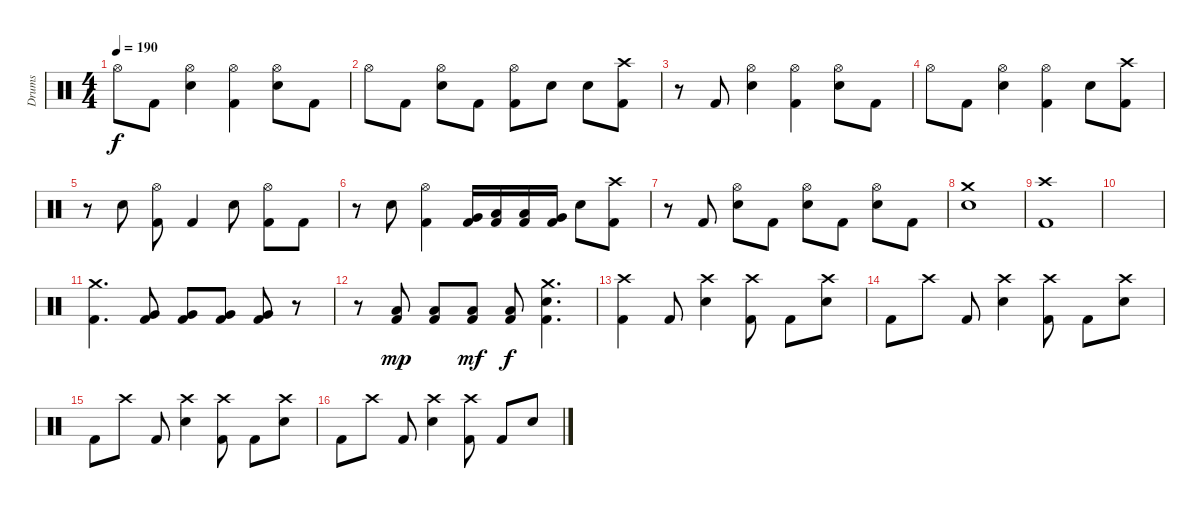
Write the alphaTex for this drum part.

\track ("Drums" "Drums") {instrument percussion}
\staff {score}
\articulation defaults
\ts (4 4)
\tempo 190
\clef neutral
\ks c "Hi-Hat (open)".8{dy f} "Kick (hit) 2".8
("Hi-Hat (open)" "Electric Snare (hit)").4 ("Hi-Hat (open)" "Kick (hit) 2").4 ("Hi-Hat (open)" "Electric Snare (hit)").8 "Kick (hit) 2".8 |
"Hi-Hat (open)".8 "Kick (hit) 2".8 ("Hi-Hat (open)" "Electric Snare (hit)").8 "Kick (hit) 2".8 ("Hi-Hat (open)" "Kick (hit) 2").8 "Electric Snare (hit)".8 "Electric Snare (hit)".8 ("Crash high (hit)" "Kick (hit) 2").8 |
r.8 "Kick (hit) 2".8 ("Hi-Hat (open)" "Electric Snare (hit)").4 ("Hi-Hat (open)" "Kick (hit) 2").4 ("Hi-Hat (open)" "Electric Snare (hit)").8 "Kick (hit) 2".8 |
"Hi-Hat (open)".8 "Kick (hit) 2".8 ("Hi-Hat (open)" "Electric Snare (hit)").4 ("Hi-Hat (open)" "Kick (hit) 2").4 "Electric Snare (hit)".8 ("Crash high (hit)" "Kick (hit) 2").8 |
r.8 "Electric Snare (hit)".8 ("Hi-Hat (open)" "Kick (hit) 2").8 "Kick (hit) 2".4 "Electric Snare (hit)".8 ("Hi-Hat (open)" "Kick (hit) 2").8 "Kick (hit) 2".8 |
r.8 "Electric Snare (hit)".8 ("Hi-Hat (open)" "Kick (hit) 2").4 ("Very Low Tom (hit)" "Kick (hit) 2").16 ("Low Floor Tom (hit)" "Kick (hit) 2").16 ("Low Floor Tom (hit)" "Kick (hit) 2").16 ("Very Low Tom (hit)" "Kick (hit) 2").16 "Electric Snare (hit)".8 ("Crash high (hit)" "Kick (hit) 2").8 |
r.8 "Kick (hit) 2".8 ("Hi-Hat (open)" "Electric Snare (hit)").8 "Kick (hit) 2".8 ("Hi-Hat (open)" "Electric Snare (hit)").8 "Kick (hit) 2".8 ("Hi-Hat (open)" "Electric Snare (hit)").8 "Kick (hit) 2".8 |
("Crash medium (hit)" "Electric Snare (hit)").1 |
("Crash high (hit)" "Kick (hit) 2").1 |
|
("Crash medium (hit)" "Kick (hit) 2").4{d} ("Very Low Tom (hit)" "Kick (hit) 2").8 ("Very Low Tom (hit)" "Kick (hit) 2").8 ("Very Low Tom (hit)" "Kick (hit) 2").8 ("Very Low Tom (hit)" "Kick (hit) 2").8 r.8 |
r.8 ("Low Floor Tom (hit)" "Kick (hit) 2").8{dy mp} ("Low Floor Tom (hit)" "Kick (hit) 2").8 ("Low Floor Tom (hit)" "Kick (hit) 2").8{dy mf} ("Low Floor Tom (hit)" "Kick (hit) 2").8{dy f} ("Crash medium (hit)" "Electric Snare (hit)" "Kick (hit) 2").4{d} |
("Crash high (hit)" "Kick (hit) 2").4 "Kick (hit) 2".8 ("Crash high (hit)" "Electric Snare (hit)").4 ("Crash high (hit)" "Kick (hit) 2").8 "Kick (hit) 2".8 ("Crash high (hit)" "Electric Snare (hit)").8 |
"Kick (hit) 2".8 "Crash high (hit)".8 "Kick (hit) 2".8 ("Crash high (hit)" "Electric Snare (hit)").4 ("Crash high (hit)" "Kick (hit) 2").8 "Kick (hit) 2".8 ("Crash high (hit)" "Electric Snare (hit)").8 |
"Kick (hit) 2".8 "Crash high (hit)".8 "Kick (hit) 2".8 ("Crash high (hit)" "Electric Snare (hit)").4 ("Crash high (hit)" "Kick (hit) 2").8 "Kick (hit) 2".8 ("Crash high (hit)" "Electric Snare (hit)").8 |
"Kick (hit) 2".8 "Crash high (hit)".8 "Kick (hit) 2".8 ("Crash high (hit)" "Electric Snare (hit)").4 ("Crash high (hit)" "Kick (hit) 2").8 "Kick (hit) 2".8 "Electric Snare (hit)".8
